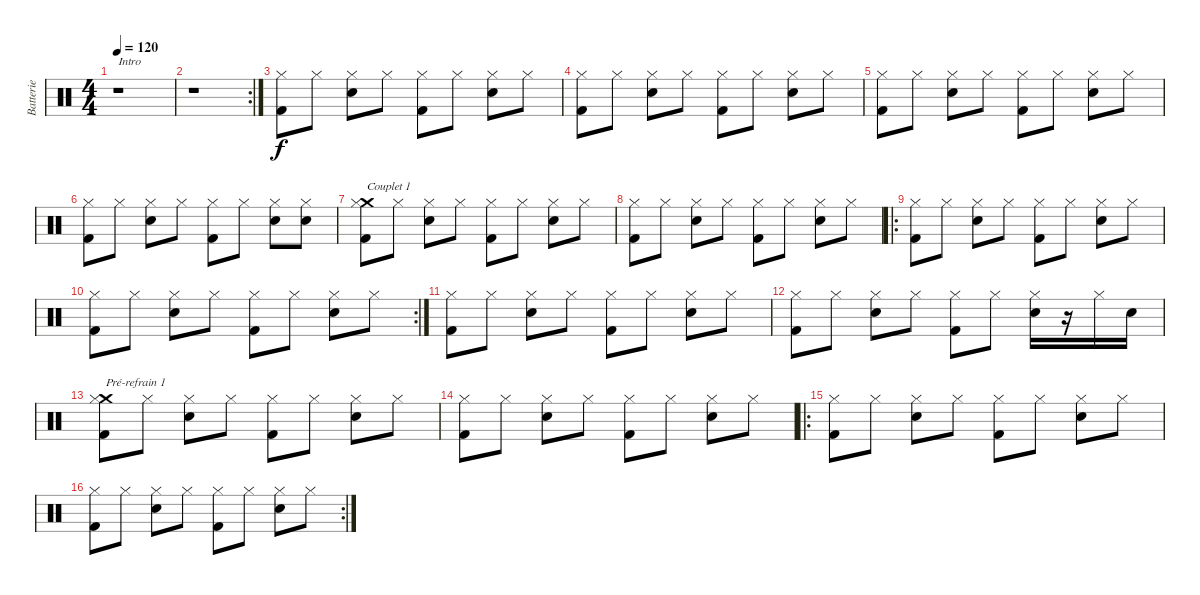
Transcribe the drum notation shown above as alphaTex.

\track ("Batterie" "Batterie") {instrument percussion}
\staff {score}
\articulation defaults
\ts (4 4)
\tempo 120
\clef neutral
\ks c
r.1{txt "Intro" dy f} |
\rc 2
r.1 |
("Kick (hit) 2" "Hi-Hat (closed)").8 "Hi-Hat (closed)".8 ("Snare (hit) 2" "Hi-Hat (closed)").8 "Hi-Hat (closed)".8 ("Kick (hit) 2" "Hi-Hat (closed)").8 "Hi-Hat (closed)".8 ("Snare (hit) 2" "Hi-Hat (closed)").8 "Hi-Hat (closed)".8 |
("Kick (hit) 2" "Hi-Hat (closed)").8 "Hi-Hat (closed)".8 ("Snare (hit) 2" "Hi-Hat (closed)").8 "Hi-Hat (closed)".8 ("Kick (hit) 2" "Hi-Hat (closed)").8 "Hi-Hat (closed)".8 ("Snare (hit) 2" "Hi-Hat (closed)").8 "Hi-Hat (closed)".8 |
("Kick (hit) 2" "Hi-Hat (closed)").8 "Hi-Hat (closed)".8 ("Snare (hit) 2" "Hi-Hat (closed)").8 "Hi-Hat (closed)".8 ("Kick (hit) 2" "Hi-Hat (closed)").8 "Hi-Hat (closed)".8 ("Snare (hit) 2" "Hi-Hat (closed)").8 "Hi-Hat (closed)".8 |
("Kick (hit) 2" "Hi-Hat (closed)").8 "Hi-Hat (closed)".8 ("Snare (hit) 2" "Hi-Hat (closed)").8 "Hi-Hat (closed)".8 ("Kick (hit) 2" "Hi-Hat (closed)").8 "Hi-Hat (closed)".8 ("Snare (hit) 2" "Hi-Hat (closed)").8 ("Snare (hit) 2" "Hi-Hat (closed)").8 |
("Kick (hit) 2" "Crash medium (hit)" "Hi-Hat (closed)").8{txt "Couplet 1"} "Hi-Hat (closed)".8 ("Snare (hit) 2" "Hi-Hat (closed)").8 "Hi-Hat (closed)".8 ("Kick (hit) 2" "Hi-Hat (closed)").8 "Hi-Hat (closed)".8 ("Snare (hit) 2" "Hi-Hat (closed)").8 "Hi-Hat (closed)".8 |
("Kick (hit) 2" "Hi-Hat (closed)").8 "Hi-Hat (closed)".8 ("Snare (hit) 2" "Hi-Hat (closed)").8 "Hi-Hat (closed)".8 ("Kick (hit) 2" "Hi-Hat (closed)").8 "Hi-Hat (closed)".8 ("Snare (hit) 2" "Hi-Hat (closed)").8 "Hi-Hat (closed)".8 |
\ro
("Kick (hit) 2" "Hi-Hat (closed)").8 "Hi-Hat (closed)".8 ("Snare (hit) 2" "Hi-Hat (closed)").8 "Hi-Hat (closed)".8 ("Kick (hit) 2" "Hi-Hat (closed)").8 "Hi-Hat (closed)".8 ("Snare (hit) 2" "Hi-Hat (closed)").8 "Hi-Hat (closed)".8 |
\rc 2
("Kick (hit) 2" "Hi-Hat (closed)").8 "Hi-Hat (closed)".8 ("Snare (hit) 2" "Hi-Hat (closed)").8 "Hi-Hat (closed)".8 ("Kick (hit) 2" "Hi-Hat (closed)").8 "Hi-Hat (closed)".8 ("Snare (hit) 2" "Hi-Hat (closed)").8 "Hi-Hat (closed)".8 |
("Kick (hit) 2" "Hi-Hat (closed)").8 "Hi-Hat (closed)".8 ("Snare (hit) 2" "Hi-Hat (closed)").8 "Hi-Hat (closed)".8 ("Kick (hit) 2" "Hi-Hat (closed)").8 "Hi-Hat (closed)".8 ("Snare (hit) 2" "Hi-Hat (closed)").8 "Hi-Hat (closed)".8 |
("Kick (hit) 2" "Hi-Hat (closed)").8 "Hi-Hat (closed)".8 ("Snare (hit) 2" "Hi-Hat (closed)").8 "Hi-Hat (closed)".8 ("Kick (hit) 2" "Hi-Hat (closed)").8 "Hi-Hat (closed)".8 ("Snare (hit) 2" "Hi-Hat (closed)").16 r.16 "Hi-Hat (closed)".16 "Snare (hit) 2".16 |
("Kick (hit) 2" "Crash medium (hit)" "Hi-Hat (closed)").8{txt "Pré-refrain 1"} "Hi-Hat (closed)".8 ("Snare (hit) 2" "Hi-Hat (closed)").8 "Hi-Hat (closed)".8 ("Kick (hit) 2" "Hi-Hat (closed)").8 "Hi-Hat (closed)".8 ("Snare (hit) 2" "Hi-Hat (closed)").8 "Hi-Hat (closed)".8 |
("Kick (hit) 2" "Hi-Hat (closed)").8 "Hi-Hat (closed)".8 ("Snare (hit) 2" "Hi-Hat (closed)").8 "Hi-Hat (closed)".8 ("Kick (hit) 2" "Hi-Hat (closed)").8 "Hi-Hat (closed)".8 ("Snare (hit) 2" "Hi-Hat (closed)").8 "Hi-Hat (closed)".8 |
\ro
("Kick (hit) 2" "Hi-Hat (closed)").8 "Hi-Hat (closed)".8 ("Snare (hit) 2" "Hi-Hat (closed)").8 "Hi-Hat (closed)".8 ("Kick (hit) 2" "Hi-Hat (closed)").8 "Hi-Hat (closed)".8 ("Snare (hit) 2" "Hi-Hat (closed)").8 "Hi-Hat (closed)".8 |
\rc 2
("Kick (hit) 2" "Hi-Hat (closed)").8 "Hi-Hat (closed)".8 ("Snare (hit) 2" "Hi-Hat (closed)").8 "Hi-Hat (closed)".8 ("Kick (hit) 2" "Hi-Hat (closed)").8 "Hi-Hat (closed)".8 ("Snare (hit) 2" "Hi-Hat (closed)").8 "Hi-Hat (closed)".8
